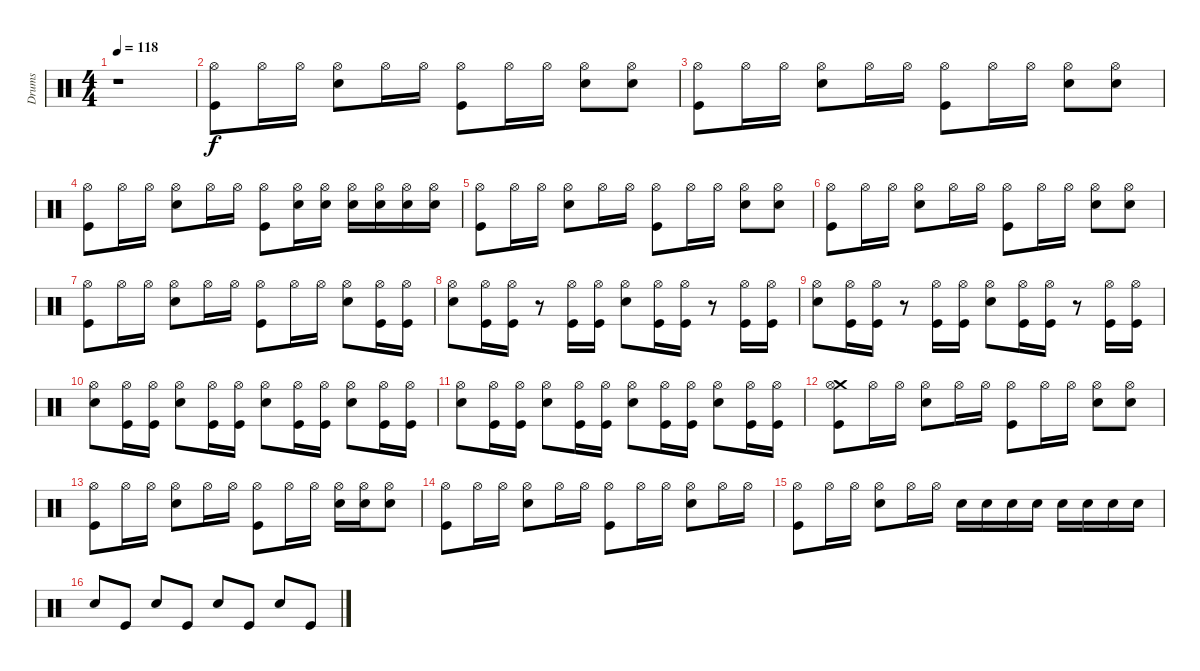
\track ("Drums" "Drums") {instrument percussion}
\staff {score}
\articulation defaults
\ts (4 4)
\tempo 118
\clef neutral
\ks c
r.1{dy f} |
("Hi-Hat (open)" "Kick (hit)").8 "Hi-Hat (open)".16 "Hi-Hat (open)".16 ("Hi-Hat (open)" "Snare (hit) 2").8 "Hi-Hat (open)".16 "Hi-Hat (open)".16 ("Hi-Hat (open)" "Kick (hit)").8 "Hi-Hat (open)".16 "Hi-Hat (open)".16 ("Snare (hit) 2" "Hi-Hat (open)").8 ("Snare (hit) 2" "Hi-Hat (open)").8 |
("Hi-Hat (open)" "Kick (hit)").8 "Hi-Hat (open)".16 "Hi-Hat (open)".16 ("Hi-Hat (open)" "Snare (hit) 2").8 "Hi-Hat (open)".16 "Hi-Hat (open)".16 ("Hi-Hat (open)" "Kick (hit)").8 "Hi-Hat (open)".16 "Hi-Hat (open)".16 ("Snare (hit) 2" "Hi-Hat (open)").8 ("Snare (hit) 2" "Hi-Hat (open)").8 |
("Hi-Hat (open)" "Kick (hit)").8 "Hi-Hat (open)".16 "Hi-Hat (open)".16 ("Hi-Hat (open)" "Snare (hit) 2").8 "Hi-Hat (open)".16 "Hi-Hat (open)".16 ("Hi-Hat (open)" "Kick (hit)").8 ("Hi-Hat (open)" "Snare (hit) 2").16 ("Hi-Hat (open)" "Snare (hit) 2").16 ("Snare (hit) 2" "Hi-Hat (open)").16 ("Snare (hit) 2" "Hi-Hat (open)").16 ("Hi-Hat (open)" "Snare (hit) 2").16 ("Hi-Hat (open)" "Snare (hit) 2").16 |
("Hi-Hat (open)" "Kick (hit)").8 "Hi-Hat (open)".16 "Hi-Hat (open)".16 ("Hi-Hat (open)" "Snare (hit) 2").8 "Hi-Hat (open)".16 "Hi-Hat (open)".16 ("Hi-Hat (open)" "Kick (hit)").8 "Hi-Hat (open)".16 "Hi-Hat (open)".16 ("Snare (hit) 2" "Hi-Hat (open)").8 ("Snare (hit) 2" "Hi-Hat (open)").8 |
("Hi-Hat (open)" "Kick (hit)").8 "Hi-Hat (open)".16 "Hi-Hat (open)".16 ("Hi-Hat (open)" "Snare (hit) 2").8 "Hi-Hat (open)".16 "Hi-Hat (open)".16 ("Hi-Hat (open)" "Kick (hit)").8 "Hi-Hat (open)".16 "Hi-Hat (open)".16 ("Snare (hit) 2" "Hi-Hat (open)").8 ("Snare (hit) 2" "Hi-Hat (open)").8 |
("Hi-Hat (open)" "Kick (hit)").8 "Hi-Hat (open)".16 "Hi-Hat (open)".16 ("Hi-Hat (open)" "Snare (hit) 2").8 "Hi-Hat (open)".16 "Hi-Hat (open)".16 ("Hi-Hat (open)" "Kick (hit)").8 "Hi-Hat (open)".16 "Hi-Hat (open)".16 ("Snare (hit) 2" "Hi-Hat (open)").8 ("Kick (hit)" "Hi-Hat (open)").16 ("Kick (hit)" "Hi-Hat (open)").16 |
("Hi-Hat (open)" "Snare (hit) 2").8 ("Hi-Hat (open)" "Kick (hit)").16 ("Hi-Hat (open)" "Kick (hit)").16 r.8 ("Hi-Hat (open)" "Kick (hit)").16 ("Hi-Hat (open)" "Kick (hit)").16 ("Hi-Hat (open)" "Snare (hit) 2").8 ("Kick (hit)" "Hi-Hat (open)").16 ("Kick (hit)" "Hi-Hat (open)").16 r.8 ("Hi-Hat (open)" "Kick (hit)").16 ("Hi-Hat (open)" "Kick (hit)").16 |
("Hi-Hat (open)" "Snare (hit) 2").8 ("Hi-Hat (open)" "Kick (hit)").16 ("Hi-Hat (open)" "Kick (hit)").16 r.8 ("Hi-Hat (open)" "Kick (hit)").16 ("Hi-Hat (open)" "Kick (hit)").16 ("Hi-Hat (open)" "Snare (hit) 2").8 ("Kick (hit)" "Hi-Hat (open)").16 ("Kick (hit)" "Hi-Hat (open)").16 r.8 ("Hi-Hat (open)" "Kick (hit)").16 ("Hi-Hat (open)" "Kick (hit)").16 |
("Hi-Hat (open)" "Snare (hit) 2").8 ("Hi-Hat (open)" "Kick (hit)").16 ("Hi-Hat (open)" "Kick (hit)").16 ("Snare (hit) 2" "Hi-Hat (open)").8 ("Hi-Hat (open)" "Kick (hit)").16 ("Hi-Hat (open)" "Kick (hit)").16 ("Hi-Hat (open)" "Snare (hit) 2").8 ("Kick (hit)" "Hi-Hat (open)").16 ("Kick (hit)" "Hi-Hat (open)").16 ("Snare (hit) 2" "Hi-Hat (open)").8 ("Hi-Hat (open)" "Kick (hit)").16 ("Hi-Hat (open)" "Kick (hit)").16 |
("Hi-Hat (open)" "Snare (hit) 2").8 ("Hi-Hat (open)" "Kick (hit)").16 ("Hi-Hat (open)" "Kick (hit)").16 ("Snare (hit) 2" "Hi-Hat (open)").8 ("Hi-Hat (open)" "Kick (hit)").16 ("Hi-Hat (open)" "Kick (hit)").16 ("Hi-Hat (open)" "Snare (hit) 2").8 ("Kick (hit)" "Hi-Hat (open)").16 ("Kick (hit)" "Hi-Hat (open)").16 ("Snare (hit) 2" "Hi-Hat (open)").8 ("Hi-Hat (open)" "Kick (hit)").16 ("Hi-Hat (open)" "Kick (hit)").16 |
("Crash medium (hit)" "Hi-Hat (open)" "Kick (hit)").8 "Hi-Hat (open)".16 "Hi-Hat (open)".16 ("Hi-Hat (open)" "Snare (hit) 2").8 "Hi-Hat (open)".16 "Hi-Hat (open)".16 ("Hi-Hat (open)" "Kick (hit)").8 "Hi-Hat (open)".16 "Hi-Hat (open)".16 ("Snare (hit) 2" "Hi-Hat (open)").8 ("Snare (hit) 2" "Hi-Hat (open)").8 |
("Hi-Hat (open)" "Kick (hit)").8 "Hi-Hat (open)".16 "Hi-Hat (open)".16 ("Hi-Hat (open)" "Snare (hit) 2").8 "Hi-Hat (open)".16 "Hi-Hat (open)".16 ("Hi-Hat (open)" "Kick (hit)").8 "Hi-Hat (open)".16 "Hi-Hat (open)".16 ("Snare (hit) 2" "Hi-Hat (open)").16 ("Snare (hit) 2" "Hi-Hat (open)").16 ("Snare (hit) 2" "Hi-Hat (open)").8 |
("Hi-Hat (open)" "Kick (hit)").8 "Hi-Hat (open)".16 "Hi-Hat (open)".16 ("Hi-Hat (open)" "Snare (hit) 2").8 "Hi-Hat (open)".16 "Hi-Hat (open)".16 ("Hi-Hat (open)" "Kick (hit)").8 "Hi-Hat (open)".16 "Hi-Hat (open)".16 ("Snare (hit) 2" "Hi-Hat (open)").8 "Hi-Hat (open)".16 "Hi-Hat (open)".16 |
("Hi-Hat (open)" "Kick (hit)").8 "Hi-Hat (open)".16 "Hi-Hat (open)".16 ("Hi-Hat (open)" "Snare (hit) 2").8 "Hi-Hat (open)".16 "Hi-Hat (open)".16 "Snare (hit) 2".16 "Snare (hit) 2".16 "Snare (hit) 2".16 "Snare (hit) 2".16 "Snare (hit) 2".16 "Snare (hit) 2".16 "Snare (hit) 2".16 "Snare (hit) 2".16 |
"Snare (hit) 2".8 "Kick (hit)".8 "Snare (hit) 2".8 "Kick (hit)".8 "Snare (hit) 2".8 "Kick (hit)".8 "Snare (hit) 2".8 "Kick (hit)".8
